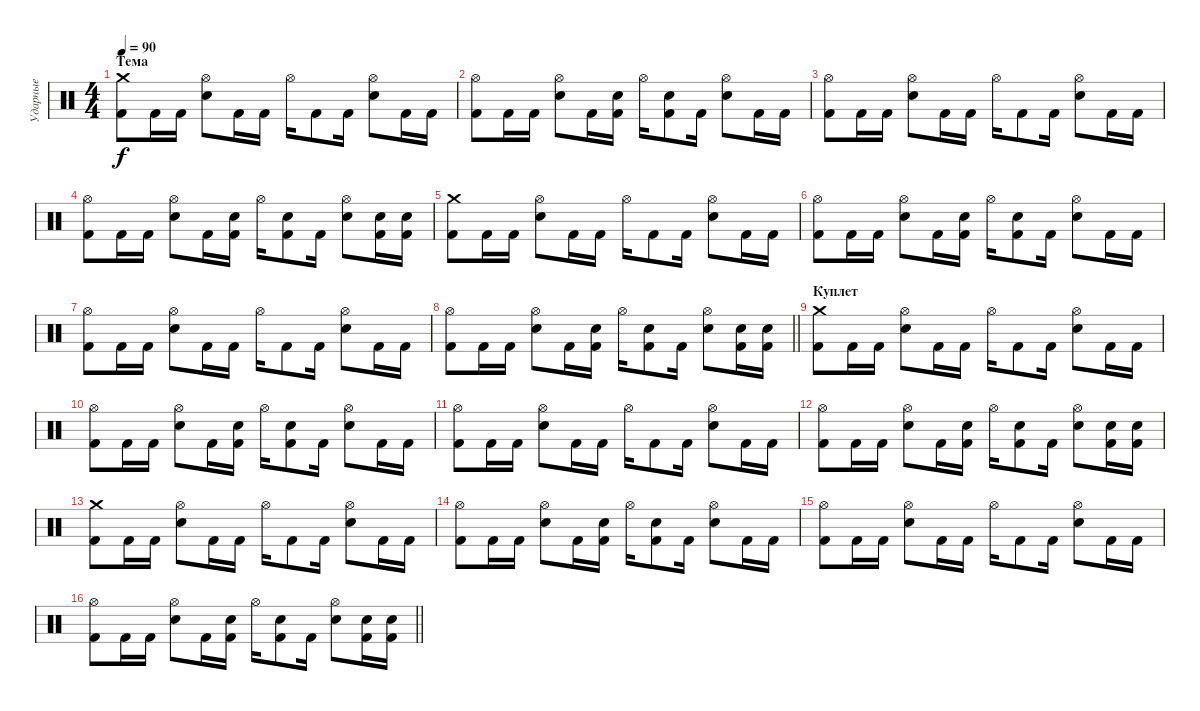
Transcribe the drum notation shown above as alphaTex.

\track ("Ударные" "Ударные") {instrument percussion}
\staff {score}
\articulation defaults
\ts (4 4)
\section ("" "Тема")
\tempo 90
\clef neutral
\ks c
("Kick (hit) 2" "Crash medium (hit)").8{dy f} "Kick (hit) 2".16 "Kick (hit) 2".16 ("Electric Snare (hit)" "Hi-Hat (open)").8 "Kick (hit) 2".16 "Kick (hit) 2".16 "Hi-Hat (open)".16 "Kick (hit) 2".8 "Kick (hit) 2".16 ("Electric Snare (hit)" "Hi-Hat (open)").8 "Kick (hit) 2".16 "Kick (hit) 2".16 |
("Kick (hit) 2" "Hi-Hat (open)").8 "Kick (hit) 2".16 "Kick (hit) 2".16 ("Electric Snare (hit)" "Hi-Hat (open)").8 "Kick (hit) 2".16 ("Kick (hit) 2" "Electric Snare (hit)").16 "Hi-Hat (open)".16 ("Kick (hit) 2" "Electric Snare (hit)").8 "Kick (hit) 2".16 ("Electric Snare (hit)" "Hi-Hat (open)").8 "Kick (hit) 2".16 "Kick (hit) 2".16 |
("Kick (hit) 2" "Hi-Hat (open)").8 "Kick (hit) 2".16 "Kick (hit) 2".16 ("Electric Snare (hit)" "Hi-Hat (open)").8 "Kick (hit) 2".16 "Kick (hit) 2".16 "Hi-Hat (open)".16 "Kick (hit) 2".8 "Kick (hit) 2".16 ("Electric Snare (hit)" "Hi-Hat (open)").8 "Kick (hit) 2".16 "Kick (hit) 2".16 |
("Kick (hit) 2" "Hi-Hat (open)").8 "Kick (hit) 2".16 "Kick (hit) 2".16 ("Electric Snare (hit)" "Hi-Hat (open)").8 "Kick (hit) 2".16 ("Kick (hit) 2" "Electric Snare (hit)").16 "Hi-Hat (open)".16 ("Kick (hit) 2" "Electric Snare (hit)").8 "Kick (hit) 2".16 ("Electric Snare (hit)" "Hi-Hat (open)").8 ("Kick (hit) 2" "Electric Snare (hit)").16 ("Kick (hit) 2" "Electric Snare (hit)").16 |
("Kick (hit) 2" "Crash medium (hit)").8 "Kick (hit) 2".16 "Kick (hit) 2".16 ("Electric Snare (hit)" "Hi-Hat (open)").8 "Kick (hit) 2".16 "Kick (hit) 2".16 "Hi-Hat (open)".16 "Kick (hit) 2".8 "Kick (hit) 2".16 ("Electric Snare (hit)" "Hi-Hat (open)").8 "Kick (hit) 2".16 "Kick (hit) 2".16 |
("Kick (hit) 2" "Hi-Hat (open)").8 "Kick (hit) 2".16 "Kick (hit) 2".16 ("Electric Snare (hit)" "Hi-Hat (open)").8 "Kick (hit) 2".16 ("Kick (hit) 2" "Electric Snare (hit)").16 "Hi-Hat (open)".16 ("Kick (hit) 2" "Electric Snare (hit)").8 "Kick (hit) 2".16 ("Electric Snare (hit)" "Hi-Hat (open)").8 "Kick (hit) 2".16 "Kick (hit) 2".16 |
("Kick (hit) 2" "Hi-Hat (open)").8 "Kick (hit) 2".16 "Kick (hit) 2".16 ("Electric Snare (hit)" "Hi-Hat (open)").8 "Kick (hit) 2".16 "Kick (hit) 2".16 "Hi-Hat (open)".16 "Kick (hit) 2".8 "Kick (hit) 2".16 ("Electric Snare (hit)" "Hi-Hat (open)").8 "Kick (hit) 2".16 "Kick (hit) 2".16 |
\barLineRight lightlight
("Kick (hit) 2" "Hi-Hat (open)").8 "Kick (hit) 2".16 "Kick (hit) 2".16 ("Electric Snare (hit)" "Hi-Hat (open)").8 "Kick (hit) 2".16 ("Kick (hit) 2" "Electric Snare (hit)").16 "Hi-Hat (open)".16 ("Kick (hit) 2" "Electric Snare (hit)").8 "Kick (hit) 2".16 ("Electric Snare (hit)" "Hi-Hat (open)").8 ("Kick (hit) 2" "Electric Snare (hit)").16 ("Kick (hit) 2" "Electric Snare (hit)").16 |
\section ("" "Куплет")
("Kick (hit) 2" "Crash medium (hit)").8 "Kick (hit) 2".16 "Kick (hit) 2".16 ("Electric Snare (hit)" "Hi-Hat (open)").8 "Kick (hit) 2".16 "Kick (hit) 2".16 "Hi-Hat (open)".16 "Kick (hit) 2".8 "Kick (hit) 2".16 ("Electric Snare (hit)" "Hi-Hat (open)").8 "Kick (hit) 2".16 "Kick (hit) 2".16 |
("Kick (hit) 2" "Hi-Hat (open)").8 "Kick (hit) 2".16 "Kick (hit) 2".16 ("Electric Snare (hit)" "Hi-Hat (open)").8 "Kick (hit) 2".16 ("Kick (hit) 2" "Electric Snare (hit)").16 "Hi-Hat (open)".16 ("Kick (hit) 2" "Electric Snare (hit)").8 "Kick (hit) 2".16 ("Electric Snare (hit)" "Hi-Hat (open)").8 "Kick (hit) 2".16 "Kick (hit) 2".16 |
("Kick (hit) 2" "Hi-Hat (open)").8 "Kick (hit) 2".16 "Kick (hit) 2".16 ("Electric Snare (hit)" "Hi-Hat (open)").8 "Kick (hit) 2".16 "Kick (hit) 2".16 "Hi-Hat (open)".16 "Kick (hit) 2".8 "Kick (hit) 2".16 ("Electric Snare (hit)" "Hi-Hat (open)").8 "Kick (hit) 2".16 "Kick (hit) 2".16 |
("Kick (hit) 2" "Hi-Hat (open)").8 "Kick (hit) 2".16 "Kick (hit) 2".16 ("Electric Snare (hit)" "Hi-Hat (open)").8 "Kick (hit) 2".16 ("Kick (hit) 2" "Electric Snare (hit)").16 "Hi-Hat (open)".16 ("Kick (hit) 2" "Electric Snare (hit)").8 "Kick (hit) 2".16 ("Electric Snare (hit)" "Hi-Hat (open)").8 ("Kick (hit) 2" "Electric Snare (hit)").16 ("Kick (hit) 2" "Electric Snare (hit)").16 |
("Kick (hit) 2" "Crash medium (hit)").8 "Kick (hit) 2".16 "Kick (hit) 2".16 ("Electric Snare (hit)" "Hi-Hat (open)").8 "Kick (hit) 2".16 "Kick (hit) 2".16 "Hi-Hat (open)".16 "Kick (hit) 2".8 "Kick (hit) 2".16 ("Electric Snare (hit)" "Hi-Hat (open)").8 "Kick (hit) 2".16 "Kick (hit) 2".16 |
("Kick (hit) 2" "Hi-Hat (open)").8 "Kick (hit) 2".16 "Kick (hit) 2".16 ("Electric Snare (hit)" "Hi-Hat (open)").8 "Kick (hit) 2".16 ("Kick (hit) 2" "Electric Snare (hit)").16 "Hi-Hat (open)".16 ("Kick (hit) 2" "Electric Snare (hit)").8 "Kick (hit) 2".16 ("Electric Snare (hit)" "Hi-Hat (open)").8 "Kick (hit) 2".16 "Kick (hit) 2".16 |
("Kick (hit) 2" "Hi-Hat (open)").8 "Kick (hit) 2".16 "Kick (hit) 2".16 ("Electric Snare (hit)" "Hi-Hat (open)").8 "Kick (hit) 2".16 "Kick (hit) 2".16 "Hi-Hat (open)".16 "Kick (hit) 2".8 "Kick (hit) 2".16 ("Electric Snare (hit)" "Hi-Hat (open)").8 "Kick (hit) 2".16 "Kick (hit) 2".16 |
\barLineRight lightlight
("Kick (hit) 2" "Hi-Hat (open)").8 "Kick (hit) 2".16 "Kick (hit) 2".16 ("Electric Snare (hit)" "Hi-Hat (open)").8 "Kick (hit) 2".16 ("Kick (hit) 2" "Electric Snare (hit)").16 "Hi-Hat (open)".16 ("Kick (hit) 2" "Electric Snare (hit)").8 "Kick (hit) 2".16 ("Electric Snare (hit)" "Hi-Hat (open)").8 ("Kick (hit) 2" "Electric Snare (hit)").16 ("Kick (hit) 2" "Electric Snare (hit)").16
